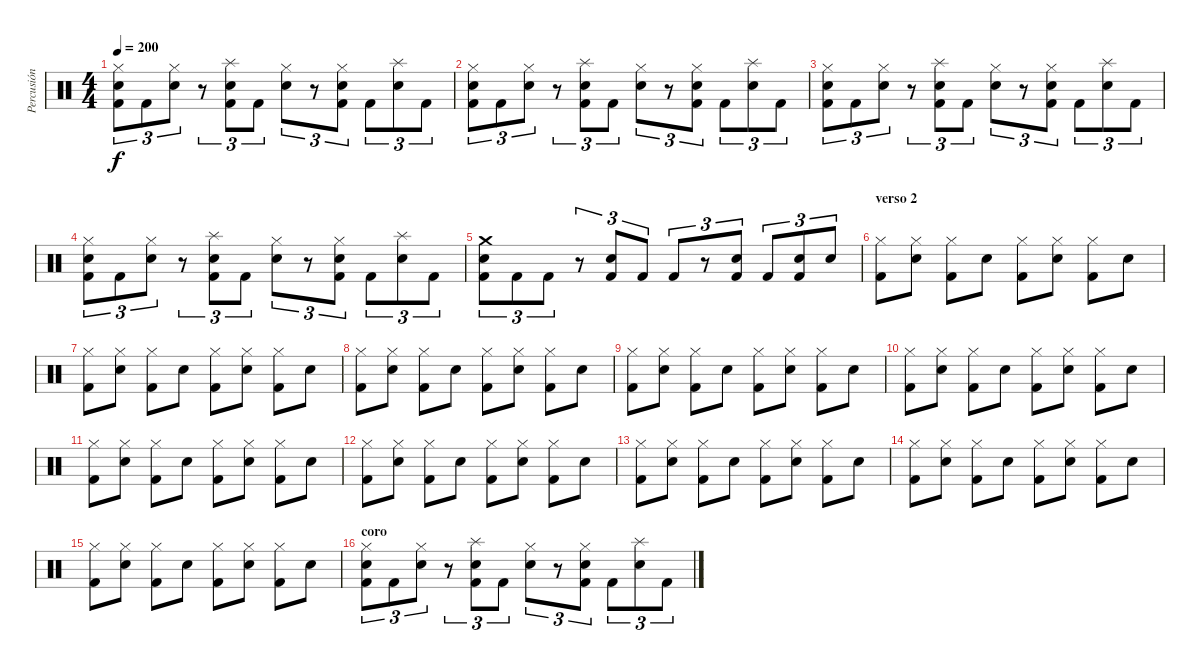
\track ("Percusión" "Percusión") {instrument percussion}
\staff {score}
\articulation defaults
\ts (4 4)
\tempo 200
\clef neutral
\ks c
("Hi-Hat (closed)" "Snare (hit) 2" "Kick (hit) 2").8{tu (3 2) dy f} "Kick (hit) 2".8{tu (3 2)} ("Hi-Hat (closed)" "Snare (hit) 2").8{tu (3 2)} r.8{tu (3 2)} ("Splash (hit)" "Snare (hit) 2" "Kick (hit) 2").8{tu (3 2)} "Kick (hit) 2".8{tu (3 2)} ("Hi-Hat (closed)" "Snare (hit) 2").8{tu (3 2)} r.8{tu (3 2)} ("Hi-Hat (closed)" "Snare (hit) 2" "Kick (hit) 2").8{tu (3 2)} "Kick (hit) 2".8{tu (3 2)} ("Splash (hit)" "Snare (hit) 2").8{tu (3 2)} "Kick (hit) 2".8{tu (3 2)} |
("Hi-Hat (closed)" "Snare (hit) 2" "Kick (hit) 2").8{tu (3 2)} "Kick (hit) 2".8{tu (3 2)} ("Hi-Hat (closed)" "Snare (hit) 2").8{tu (3 2)} r.8{tu (3 2)} ("Splash (hit)" "Snare (hit) 2" "Kick (hit) 2").8{tu (3 2)} "Kick (hit) 2".8{tu (3 2)} ("Hi-Hat (closed)" "Snare (hit) 2").8{tu (3 2)} r.8{tu (3 2)} ("Hi-Hat (closed)" "Snare (hit) 2" "Kick (hit) 2").8{tu (3 2)} "Kick (hit) 2".8{tu (3 2)} ("Splash (hit)" "Snare (hit) 2").8{tu (3 2)} "Kick (hit) 2".8{tu (3 2)} |
("Hi-Hat (closed)" "Snare (hit) 2" "Kick (hit) 2").8{tu (3 2)} "Kick (hit) 2".8{tu (3 2)} ("Hi-Hat (closed)" "Snare (hit) 2").8{tu (3 2)} r.8{tu (3 2)} ("Splash (hit)" "Snare (hit) 2" "Kick (hit) 2").8{tu (3 2)} "Kick (hit) 2".8{tu (3 2)} ("Hi-Hat (closed)" "Snare (hit) 2").8{tu (3 2)} r.8{tu (3 2)} ("Hi-Hat (closed)" "Snare (hit) 2" "Kick (hit) 2").8{tu (3 2)} "Kick (hit) 2".8{tu (3 2)} ("Splash (hit)" "Snare (hit) 2").8{tu (3 2)} "Kick (hit) 2".8{tu (3 2)} |
("Hi-Hat (closed)" "Snare (hit) 2" "Kick (hit) 2").8{tu (3 2)} "Kick (hit) 2".8{tu (3 2)} ("Hi-Hat (closed)" "Snare (hit) 2").8{tu (3 2)} r.8{tu (3 2)} ("Splash (hit)" "Snare (hit) 2" "Kick (hit) 2").8{tu (3 2)} "Kick (hit) 2".8{tu (3 2)} ("Hi-Hat (closed)" "Snare (hit) 2").8{tu (3 2)} r.8{tu (3 2)} ("Hi-Hat (closed)" "Snare (hit) 2" "Kick (hit) 2").8{tu (3 2)} "Kick (hit) 2".8{tu (3 2)} ("Splash (hit)" "Snare (hit) 2").8{tu (3 2)} "Kick (hit) 2".8{tu (3 2)} |
("Crash medium (hit)" "Snare (hit) 2" "Kick (hit) 2").8{tu (3 2)} "Kick (hit) 2".8{tu (3 2)} "Kick (hit) 2".8{tu (3 2)} r.8{tu (3 2)} ("Snare (hit) 2" "Kick (hit) 2").8{tu (3 2)} "Kick (hit) 2".8{tu (3 2)} "Kick (hit) 2".8{tu (3 2)} r.8{tu (3 2)} ("Snare (hit) 2" "Kick (hit) 2").8{tu (3 2)} "Kick (hit) 2".8{tu (3 2)} ("Snare (hit) 2" "Kick (hit) 2").8{tu (3 2)} "Snare (hit) 2".8{tu (3 2)} |
\section ("" "verso 2")
("Hi-Hat (closed)" "Kick (hit) 2").8 ("Hi-Hat (closed)" "Snare (hit) 2").8 ("Hi-Hat (closed)" "Kick (hit) 2").8 "Snare (hit) 2".8 ("Hi-Hat (closed)" "Kick (hit) 2").8 ("Hi-Hat (closed)" "Snare (hit) 2").8 ("Hi-Hat (closed)" "Kick (hit) 2").8 "Snare (hit) 2".8 |
("Hi-Hat (closed)" "Kick (hit) 2").8 ("Hi-Hat (closed)" "Snare (hit) 2").8 ("Hi-Hat (closed)" "Kick (hit) 2").8 "Snare (hit) 2".8 ("Hi-Hat (closed)" "Kick (hit) 2").8 ("Hi-Hat (closed)" "Snare (hit) 2").8 ("Hi-Hat (closed)" "Kick (hit) 2").8 "Snare (hit) 2".8 |
("Hi-Hat (closed)" "Kick (hit) 2").8 ("Hi-Hat (closed)" "Snare (hit) 2").8 ("Hi-Hat (closed)" "Kick (hit) 2").8 "Snare (hit) 2".8 ("Hi-Hat (closed)" "Kick (hit) 2").8 ("Hi-Hat (closed)" "Snare (hit) 2").8 ("Hi-Hat (closed)" "Kick (hit) 2").8 "Snare (hit) 2".8 |
("Hi-Hat (closed)" "Kick (hit) 2").8 ("Hi-Hat (closed)" "Snare (hit) 2").8 ("Hi-Hat (closed)" "Kick (hit) 2").8 "Snare (hit) 2".8 ("Hi-Hat (closed)" "Kick (hit) 2").8 ("Hi-Hat (closed)" "Snare (hit) 2").8 ("Hi-Hat (closed)" "Kick (hit) 2").8 "Snare (hit) 2".8 |
("Hi-Hat (closed)" "Kick (hit) 2").8 ("Hi-Hat (closed)" "Snare (hit) 2").8 ("Hi-Hat (closed)" "Kick (hit) 2").8 "Snare (hit) 2".8 ("Hi-Hat (closed)" "Kick (hit) 2").8 ("Hi-Hat (closed)" "Snare (hit) 2").8 ("Hi-Hat (closed)" "Kick (hit) 2").8 "Snare (hit) 2".8 |
("Hi-Hat (closed)" "Kick (hit) 2").8 ("Hi-Hat (closed)" "Snare (hit) 2").8 ("Hi-Hat (closed)" "Kick (hit) 2").8 "Snare (hit) 2".8 ("Hi-Hat (closed)" "Kick (hit) 2").8 ("Hi-Hat (closed)" "Snare (hit) 2").8 ("Hi-Hat (closed)" "Kick (hit) 2").8 "Snare (hit) 2".8 |
("Hi-Hat (closed)" "Kick (hit) 2").8 ("Hi-Hat (closed)" "Snare (hit) 2").8 ("Hi-Hat (closed)" "Kick (hit) 2").8 "Snare (hit) 2".8 ("Hi-Hat (closed)" "Kick (hit) 2").8 ("Hi-Hat (closed)" "Snare (hit) 2").8 ("Hi-Hat (closed)" "Kick (hit) 2").8 "Snare (hit) 2".8 |
("Hi-Hat (closed)" "Kick (hit) 2").8 ("Hi-Hat (closed)" "Snare (hit) 2").8 ("Hi-Hat (closed)" "Kick (hit) 2").8 "Snare (hit) 2".8 ("Hi-Hat (closed)" "Kick (hit) 2").8 ("Hi-Hat (closed)" "Snare (hit) 2").8 ("Hi-Hat (closed)" "Kick (hit) 2").8 "Snare (hit) 2".8 |
("Hi-Hat (closed)" "Kick (hit) 2").8 ("Hi-Hat (closed)" "Snare (hit) 2").8 ("Hi-Hat (closed)" "Kick (hit) 2").8 "Snare (hit) 2".8 ("Hi-Hat (closed)" "Kick (hit) 2").8 ("Hi-Hat (closed)" "Snare (hit) 2").8 ("Hi-Hat (closed)" "Kick (hit) 2").8 "Snare (hit) 2".8 |
("Hi-Hat (closed)" "Kick (hit) 2").8 ("Hi-Hat (closed)" "Snare (hit) 2").8 ("Hi-Hat (closed)" "Kick (hit) 2").8 "Snare (hit) 2".8 ("Hi-Hat (closed)" "Kick (hit) 2").8 ("Hi-Hat (closed)" "Snare (hit) 2").8 ("Hi-Hat (closed)" "Kick (hit) 2").8 "Snare (hit) 2".8 |
\section ("" "coro")
("Hi-Hat (closed)" "Snare (hit) 2" "Kick (hit) 2").8{tu (3 2)} "Kick (hit) 2".8{tu (3 2)} ("Hi-Hat (closed)" "Snare (hit) 2").8{tu (3 2)} r.8{tu (3 2)} ("Splash (hit)" "Snare (hit) 2" "Kick (hit) 2").8{tu (3 2)} "Kick (hit) 2".8{tu (3 2)} ("Hi-Hat (closed)" "Snare (hit) 2").8{tu (3 2)} r.8{tu (3 2)} ("Hi-Hat (closed)" "Snare (hit) 2" "Kick (hit) 2").8{tu (3 2)} "Kick (hit) 2".8{tu (3 2)} ("Splash (hit)" "Snare (hit) 2").8{tu (3 2)} "Kick (hit) 2".8{tu (3 2)}
